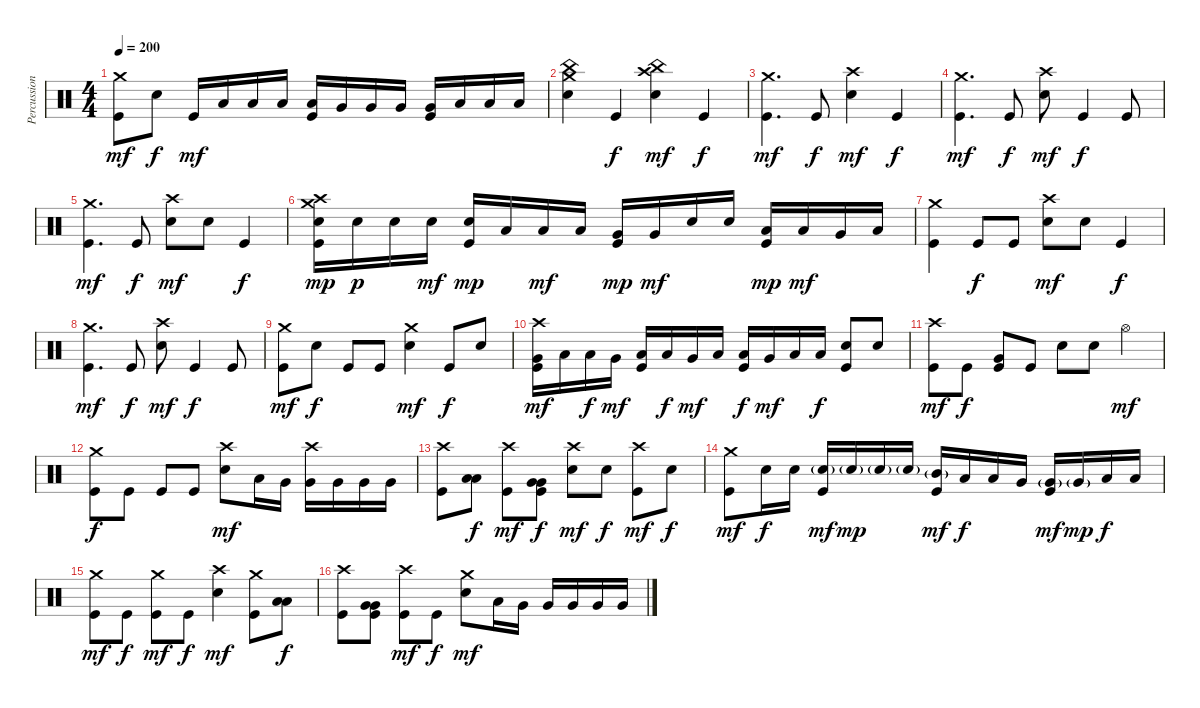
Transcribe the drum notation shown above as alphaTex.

\track ("Percussion" "Percussion") {instrument percussion}
\staff {score}
\articulation defaults
\ts (4 4)
\tempo 200
\clef neutral
\ks c
("Crash medium (hit)" "Kick (hit)").8{dy mf} "Electric Snare (hit)".8{dy f} "Kick (hit)".16{dy mf} "Low Tom (hit)".16 "Low Tom (hit)".16 "Low Tom (hit)".16 ("Low Tom (hit)" "Kick (hit)").16 "Very Low Tom (hit)".16 "Very Low Tom (hit)".16 "Very Low Tom (hit)".16 ("Very Low Tom (hit)" "Kick (hit)").16 "Low Floor Tom (hit)".16 "Low Floor Tom (hit)".16 "Low Floor Tom (hit)".16 |
("Crash medium (hit)" "China (hit)" "Electric Snare (hit)").4 "Kick (hit)".4{dy f} ("Crash high (hit)" "China (hit)" "Electric Snare (hit)").4{dy mf} "Kick (hit)".4{dy f} |
("Crash medium (hit)" "Kick (hit)").4{d dy mf} "Kick (hit)".8{dy f} ("Crash high (hit)" "Electric Snare (hit)").4{dy mf} "Kick (hit)".4{dy f} |
("Crash medium (hit)" "Kick (hit)").4{d dy mf} "Kick (hit)".8{dy f} ("Crash high (hit)" "Electric Snare (hit)").8{dy mf} "Kick (hit)".4{dy f} "Kick (hit)".8 |
("Crash medium (hit)" "Kick (hit)").4{d dy mf} "Kick (hit)".8{dy f} ("Crash high (hit)" "Electric Snare (hit)").8{dy mf} "Electric Snare (hit)".8 "Kick (hit)".4{dy f} |
("Crash medium (hit)" "Crash high (hit)" "Electric Snare (hit)" "Kick (hit)").16{dy mp} "Electric Snare (hit)".16{dy p} "Electric Snare (hit)".16 "Electric Snare (hit)".16{dy mf} ("Electric Snare (hit)" "Kick (hit)").16{dy mp} "Low Tom (hit)".16 "Low Tom (hit)".16{dy mf} "Low Tom (hit)".16 ("Very Low Tom (hit)" "Kick (hit)").16{dy mp} "Very Low Tom (hit)".16{dy mf} "Electric Snare (hit)".16 "Electric Snare (hit)".16 ("Low Tom (hit)" "Kick (hit)").16{dy mp} "Low Tom (hit)".16{dy mf} "Very Low Tom (hit)".16 "Low Floor Tom (hit)".16 |
("Crash medium (hit)" "Kick (hit)").4 "Kick (hit)".8{dy f} "Kick (hit)".8 ("Crash high (hit)" "Electric Snare (hit)").8{dy mf} "Electric Snare (hit)".8 "Kick (hit)".4{dy f} |
("Crash medium (hit)" "Kick (hit)").4{d dy mf} "Kick (hit)".8{dy f} ("Crash high (hit)" "Electric Snare (hit)").8{dy mf} "Kick (hit)".4{dy f} "Kick (hit)".8 |
("Crash medium (hit)" "Kick (hit)").8{dy mf} "Electric Snare (hit)".8{dy f} "Kick (hit)".8 "Kick (hit)".8 ("Crash medium (hit)" "Electric Snare (hit)").4{dy mf} "Kick (hit)".8{dy f} "Electric Snare (hit)".8 |
("Crash high (hit)" "Very Low Tom (hit)" "Kick (hit)").16{dy mf} "Low Floor Tom (hit)".16 "Low Tom (hit)".16{dy f} "Very Low Tom (hit)".16{dy mf} ("Low Floor Tom (hit)" "Kick (hit)").16 "Low Tom (hit)".16{dy f} "Very Low Tom (hit)".16{dy mf} "Low Floor Tom (hit)".16 ("Low Tom (hit)" "Kick (hit)").16{dy f} "Very Low Tom (hit)".16{dy mf} "Low Floor Tom (hit)".16 "Low Tom (hit)".16{dy f} ("Electric Snare (hit)" "Kick (hit)").8 "Electric Snare (hit)".8 |
("Crash high (hit)" "Kick (hit)").8{dy mf} "Kick (hit)".8{dy f} ("Very Low Tom (hit)" "Kick (hit)").8 "Kick (hit)".8 "Electric Snare (hit)".8 "Electric Snare (hit)".8 "Hi-Hat (open)".4{dy mf} |
("Crash medium (hit)" "Kick (hit)").8{dy f} "Kick (hit)".8 "Kick (hit)".8 "Kick (hit)".8 ("Crash high (hit)" "Electric Snare (hit)").8{dy mf} "Low Floor Tom (hit)".16 "Very Low Tom (hit)".16 ("Crash high (hit)" "Very Low Tom (hit)").16 "Very Low Tom (hit)".16 "Very Low Tom (hit)".16 "Very Low Tom (hit)".16 |
("Crash high (hit)" "Kick (hit)").8 ("Low Tom (hit)" "Low Tom (hit)").8{dy f} ("Crash high (hit)" "Kick (hit)").8{dy mf} ("Very Low Tom (hit)" "Very Low Tom (hit)" "Kick (hit)").8{dy f} ("Crash high (hit)" "Electric Snare (hit)").8{dy mf} "Electric Snare (hit)".8{dy f} ("Crash high (hit)" "Kick (hit)").8{dy mf} "Electric Snare (hit)".8{dy f} |
("Crash medium (hit)" "Kick (hit)").8{dy mf} "Electric Snare (hit)".16{dy f} "Electric Snare (hit)".16 ("Electric Snare (hit)"{g} "Kick (hit)").16{dy mf} "Electric Snare (hit)"{g}.16{dy mp} "Electric Snare (hit)"{g}.16 "Electric Snare (hit)"{g}.16 ("Mid Tom (hit)"{g} "Kick (hit)").16{dy mf} "Low Tom (hit)".16{dy f} "Low Tom (hit)".16 "Very Low Tom (hit)".16 ("Very Low Tom (hit)"{g} "Kick (hit)").16{dy mf} "Very Low Tom (hit)"{g}.16{dy mp} "Low Floor Tom (hit)".16{dy f} "Low Floor Tom (hit)".16 |
("Crash medium (hit)" "Kick (hit)").8{dy mf} "Kick (hit)".8{dy f} ("Crash medium (hit)" "Kick (hit)").8{dy mf} "Kick (hit)".8{dy f} ("Crash high (hit)" "Electric Snare (hit)").4{dy mf} ("Crash medium (hit)" "Kick (hit)").8 ("Low Tom (hit)" "Low Tom (hit)").8{dy f} |
("Crash high (hit)" "Kick (hit)").8 ("Very Low Tom (hit)" "Very Low Tom (hit)" "Kick (hit)").8 ("Crash high (hit)" "Kick (hit)").8{dy mf} "Kick (hit)".8{dy f} ("Crash medium (hit)" "Electric Snare (hit)").8{dy mf} "Low Floor Tom (hit)".16 "Very Low Tom (hit)".16 "Very Low Tom (hit)".16 "Very Low Tom (hit)".16 "Very Low Tom (hit)".16 "Very Low Tom (hit)".16
